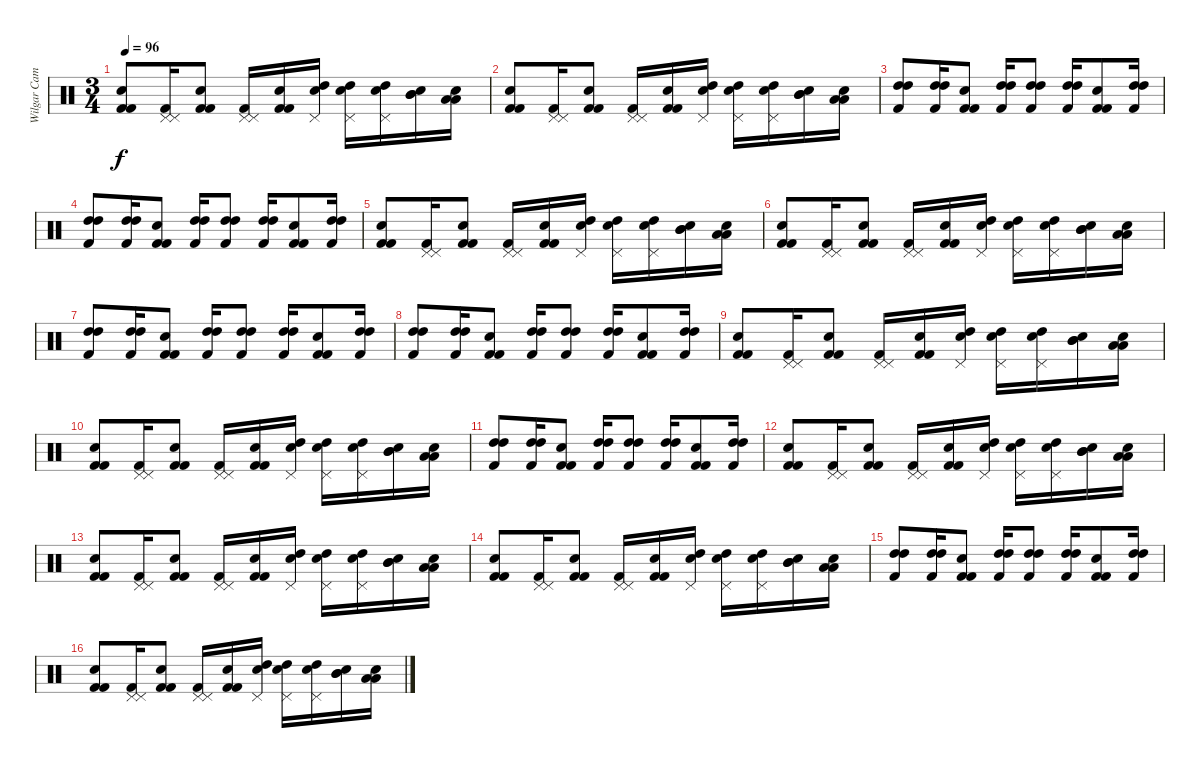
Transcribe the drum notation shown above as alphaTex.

\track ("Wilgar Campbell" "Wilgar Cam") {instrument percussion}
\staff {score}
\articulation defaults
\ts (3 4)
\tempo 96
\clef neutral
\ks c
("Electric Snare (hit)" "Kick (hit) 2" "Kick (hit) 2").8{dy f} ("Pedal Hi-Hat (hit)" "Pedal Hi-Hat (hit)" "Kick (hit) 2").16 ("Snare (hit) 2" "Kick (hit) 2" "Kick (hit) 2").8 ("Pedal Hi-Hat (hit)" "Pedal Hi-Hat (hit)" "Kick (hit) 2").16 ("Snare (hit) 2" "Kick (hit) 2" "Kick (hit) 2").16 ("Electric Snare (hit)" "Pedal Hi-Hat (hit)" "High Tom (hit)").16 ("Electric Snare (hit)" "Pedal Hi-Hat (hit)" "High Tom (hit)").16 ("Electric Snare (hit)" "Pedal Hi-Hat (hit)" "High Tom (hit)").16 ("Electric Snare (hit)" "Mid Tom (hit)" "Mid Tom (hit)").16 ("Electric Snare (hit)" "Low Tom (hit)" "Low Tom (hit)").16 |
("Electric Snare (hit)" "Kick (hit) 2" "Kick (hit) 2").8 ("Pedal Hi-Hat (hit)" "Pedal Hi-Hat (hit)" "Kick (hit) 2").16 ("Snare (hit) 2" "Kick (hit) 2" "Kick (hit) 2").8 ("Pedal Hi-Hat (hit)" "Pedal Hi-Hat (hit)" "Kick (hit) 2").16 ("Snare (hit) 2" "Kick (hit) 2" "Kick (hit) 2").16 ("Electric Snare (hit)" "Pedal Hi-Hat (hit)" "High Tom (hit)").16 ("Electric Snare (hit)" "Pedal Hi-Hat (hit)" "High Tom (hit)").16 ("Electric Snare (hit)" "Pedal Hi-Hat (hit)" "High Tom (hit)").16 ("Electric Snare (hit)" "Mid Tom (hit)" "Mid Tom (hit)").16 ("Electric Snare (hit)" "Low Tom (hit)" "Low Tom (hit)").16 |
("High Tom (hit)" "High Tom (hit)" "Kick (hit) 2").8 ("High Tom (hit)" "High Tom (hit)" "Kick (hit) 2").16 ("Snare (hit) 2" "Kick (hit) 2" "Kick (hit) 2").8 ("High Tom (hit)" "High Tom (hit)" "Kick (hit) 2").16 ("High Tom (hit)" "High Tom (hit)" "Kick (hit) 2").8 ("High Tom (hit)" "High Tom (hit)" "Kick (hit) 2").16 ("Snare (hit) 2" "Kick (hit) 2" "Kick (hit) 2").8 ("High Tom (hit)" "High Tom (hit)" "Kick (hit) 2").16 |
("High Tom (hit)" "High Tom (hit)" "Kick (hit) 2").8 ("High Tom (hit)" "High Tom (hit)" "Kick (hit) 2").16 ("Snare (hit) 2" "Kick (hit) 2" "Kick (hit) 2").8 ("High Tom (hit)" "High Tom (hit)" "Kick (hit) 2").16 ("High Tom (hit)" "High Tom (hit)" "Kick (hit) 2").8 ("High Tom (hit)" "High Tom (hit)" "Kick (hit) 2").16 ("Snare (hit) 2" "Kick (hit) 2" "Kick (hit) 2").8 ("High Tom (hit)" "High Tom (hit)" "Kick (hit) 2").16 |
("Electric Snare (hit)" "Kick (hit) 2" "Kick (hit) 2").8 ("Pedal Hi-Hat (hit)" "Pedal Hi-Hat (hit)" "Kick (hit) 2").16 ("Snare (hit) 2" "Kick (hit) 2" "Kick (hit) 2").8 ("Pedal Hi-Hat (hit)" "Pedal Hi-Hat (hit)" "Kick (hit) 2").16 ("Snare (hit) 2" "Kick (hit) 2" "Kick (hit) 2").16 ("Electric Snare (hit)" "Pedal Hi-Hat (hit)" "High Tom (hit)").16 ("Electric Snare (hit)" "Pedal Hi-Hat (hit)" "High Tom (hit)").16 ("Electric Snare (hit)" "Pedal Hi-Hat (hit)" "High Tom (hit)").16 ("Electric Snare (hit)" "Mid Tom (hit)" "Mid Tom (hit)").16 ("Electric Snare (hit)" "Low Tom (hit)" "Low Tom (hit)").16 |
("Electric Snare (hit)" "Kick (hit) 2" "Kick (hit) 2").8 ("Pedal Hi-Hat (hit)" "Pedal Hi-Hat (hit)" "Kick (hit) 2").16 ("Snare (hit) 2" "Kick (hit) 2" "Kick (hit) 2").8 ("Pedal Hi-Hat (hit)" "Pedal Hi-Hat (hit)" "Kick (hit) 2").16 ("Snare (hit) 2" "Kick (hit) 2" "Kick (hit) 2").16 ("Electric Snare (hit)" "Pedal Hi-Hat (hit)" "High Tom (hit)").16 ("Electric Snare (hit)" "Pedal Hi-Hat (hit)" "High Tom (hit)").16 ("Electric Snare (hit)" "Pedal Hi-Hat (hit)" "High Tom (hit)").16 ("Electric Snare (hit)" "Mid Tom (hit)" "Mid Tom (hit)").16 ("Electric Snare (hit)" "Low Tom (hit)" "Low Tom (hit)").16 |
("High Tom (hit)" "High Tom (hit)" "Kick (hit) 2").8 ("High Tom (hit)" "High Tom (hit)" "Kick (hit) 2").16 ("Snare (hit) 2" "Kick (hit) 2" "Kick (hit) 2").8 ("High Tom (hit)" "High Tom (hit)" "Kick (hit) 2").16 ("High Tom (hit)" "High Tom (hit)" "Kick (hit) 2").8 ("High Tom (hit)" "High Tom (hit)" "Kick (hit) 2").16 ("Snare (hit) 2" "Kick (hit) 2" "Kick (hit) 2").8 ("High Tom (hit)" "High Tom (hit)" "Kick (hit) 2").16 |
("High Tom (hit)" "High Tom (hit)" "Kick (hit) 2").8 ("High Tom (hit)" "High Tom (hit)" "Kick (hit) 2").16 ("Snare (hit) 2" "Kick (hit) 2" "Kick (hit) 2").8 ("High Tom (hit)" "High Tom (hit)" "Kick (hit) 2").16 ("High Tom (hit)" "High Tom (hit)" "Kick (hit) 2").8 ("High Tom (hit)" "High Tom (hit)" "Kick (hit) 2").16 ("Snare (hit) 2" "Kick (hit) 2" "Kick (hit) 2").8 ("High Tom (hit)" "High Tom (hit)" "Kick (hit) 2").16 |
("Electric Snare (hit)" "Kick (hit) 2" "Kick (hit) 2").8 ("Pedal Hi-Hat (hit)" "Pedal Hi-Hat (hit)" "Kick (hit) 2").16 ("Snare (hit) 2" "Kick (hit) 2" "Kick (hit) 2").8 ("Pedal Hi-Hat (hit)" "Pedal Hi-Hat (hit)" "Kick (hit) 2").16 ("Snare (hit) 2" "Kick (hit) 2" "Kick (hit) 2").16 ("Electric Snare (hit)" "Pedal Hi-Hat (hit)" "High Tom (hit)").16 ("Electric Snare (hit)" "Pedal Hi-Hat (hit)" "High Tom (hit)").16 ("Electric Snare (hit)" "Pedal Hi-Hat (hit)" "High Tom (hit)").16 ("Electric Snare (hit)" "Mid Tom (hit)" "Mid Tom (hit)").16 ("Electric Snare (hit)" "Low Tom (hit)" "Low Tom (hit)").16 |
("Electric Snare (hit)" "Kick (hit) 2" "Kick (hit) 2").8 ("Pedal Hi-Hat (hit)" "Pedal Hi-Hat (hit)" "Kick (hit) 2").16 ("Snare (hit) 2" "Kick (hit) 2" "Kick (hit) 2").8 ("Pedal Hi-Hat (hit)" "Pedal Hi-Hat (hit)" "Kick (hit) 2").16 ("Snare (hit) 2" "Kick (hit) 2" "Kick (hit) 2").16 ("Electric Snare (hit)" "Pedal Hi-Hat (hit)" "High Tom (hit)").16 ("Electric Snare (hit)" "Pedal Hi-Hat (hit)" "High Tom (hit)").16 ("Electric Snare (hit)" "Pedal Hi-Hat (hit)" "High Tom (hit)").16 ("Electric Snare (hit)" "Mid Tom (hit)" "Mid Tom (hit)").16 ("Electric Snare (hit)" "Low Tom (hit)" "Low Tom (hit)").16 |
("High Tom (hit)" "High Tom (hit)" "Kick (hit) 2").8 ("High Tom (hit)" "High Tom (hit)" "Kick (hit) 2").16 ("Snare (hit) 2" "Kick (hit) 2" "Kick (hit) 2").8 ("High Tom (hit)" "High Tom (hit)" "Kick (hit) 2").16 ("High Tom (hit)" "High Tom (hit)" "Kick (hit) 2").8 ("High Tom (hit)" "High Tom (hit)" "Kick (hit) 2").16 ("Snare (hit) 2" "Kick (hit) 2" "Kick (hit) 2").8 ("High Tom (hit)" "High Tom (hit)" "Kick (hit) 2").16 |
("Electric Snare (hit)" "Kick (hit) 2" "Kick (hit) 2").8 ("Pedal Hi-Hat (hit)" "Pedal Hi-Hat (hit)" "Kick (hit) 2").16 ("Snare (hit) 2" "Kick (hit) 2" "Kick (hit) 2").8 ("Pedal Hi-Hat (hit)" "Pedal Hi-Hat (hit)" "Kick (hit) 2").16 ("Snare (hit) 2" "Kick (hit) 2" "Kick (hit) 2").16 ("Electric Snare (hit)" "Pedal Hi-Hat (hit)" "High Tom (hit)").16 ("Electric Snare (hit)" "Pedal Hi-Hat (hit)" "High Tom (hit)").16 ("Electric Snare (hit)" "Pedal Hi-Hat (hit)" "High Tom (hit)").16 ("Electric Snare (hit)" "Mid Tom (hit)" "Mid Tom (hit)").16 ("Electric Snare (hit)" "Low Tom (hit)" "Low Tom (hit)").16 |
("Electric Snare (hit)" "Kick (hit) 2" "Kick (hit) 2").8 ("Pedal Hi-Hat (hit)" "Pedal Hi-Hat (hit)" "Kick (hit) 2").16 ("Snare (hit) 2" "Kick (hit) 2" "Kick (hit) 2").8 ("Pedal Hi-Hat (hit)" "Pedal Hi-Hat (hit)" "Kick (hit) 2").16 ("Snare (hit) 2" "Kick (hit) 2" "Kick (hit) 2").16 ("Electric Snare (hit)" "Pedal Hi-Hat (hit)" "High Tom (hit)").16 ("Electric Snare (hit)" "Pedal Hi-Hat (hit)" "High Tom (hit)").16 ("Electric Snare (hit)" "Pedal Hi-Hat (hit)" "High Tom (hit)").16 ("Electric Snare (hit)" "Mid Tom (hit)" "Mid Tom (hit)").16 ("Electric Snare (hit)" "Low Tom (hit)" "Low Tom (hit)").16 |
("Electric Snare (hit)" "Kick (hit) 2" "Kick (hit) 2").8 ("Pedal Hi-Hat (hit)" "Pedal Hi-Hat (hit)" "Kick (hit) 2").16 ("Snare (hit) 2" "Kick (hit) 2" "Kick (hit) 2").8 ("Pedal Hi-Hat (hit)" "Pedal Hi-Hat (hit)" "Kick (hit) 2").16 ("Snare (hit) 2" "Kick (hit) 2" "Kick (hit) 2").16 ("Electric Snare (hit)" "Pedal Hi-Hat (hit)" "High Tom (hit)").16 ("Electric Snare (hit)" "Pedal Hi-Hat (hit)" "High Tom (hit)").16 ("Electric Snare (hit)" "Pedal Hi-Hat (hit)" "High Tom (hit)").16 ("Electric Snare (hit)" "Mid Tom (hit)" "Mid Tom (hit)").16 ("Electric Snare (hit)" "Low Tom (hit)" "Low Tom (hit)").16 |
("High Tom (hit)" "High Tom (hit)" "Kick (hit) 2").8 ("High Tom (hit)" "High Tom (hit)" "Kick (hit) 2").16 ("Snare (hit) 2" "Kick (hit) 2" "Kick (hit) 2").8 ("High Tom (hit)" "High Tom (hit)" "Kick (hit) 2").16 ("High Tom (hit)" "High Tom (hit)" "Kick (hit) 2").8 ("High Tom (hit)" "High Tom (hit)" "Kick (hit) 2").16 ("Snare (hit) 2" "Kick (hit) 2" "Kick (hit) 2").8 ("High Tom (hit)" "High Tom (hit)" "Kick (hit) 2").16 |
("Electric Snare (hit)" "Kick (hit) 2" "Kick (hit) 2").8 ("Pedal Hi-Hat (hit)" "Pedal Hi-Hat (hit)" "Kick (hit) 2").16 ("Snare (hit) 2" "Kick (hit) 2" "Kick (hit) 2").8 ("Pedal Hi-Hat (hit)" "Pedal Hi-Hat (hit)" "Kick (hit) 2").16 ("Snare (hit) 2" "Kick (hit) 2" "Kick (hit) 2").16 ("Electric Snare (hit)" "Pedal Hi-Hat (hit)" "High Tom (hit)").16 ("Electric Snare (hit)" "Pedal Hi-Hat (hit)" "High Tom (hit)").16 ("Electric Snare (hit)" "Pedal Hi-Hat (hit)" "High Tom (hit)").16 ("Electric Snare (hit)" "Mid Tom (hit)" "Mid Tom (hit)").16 ("Electric Snare (hit)" "Low Tom (hit)" "Low Tom (hit)").16
